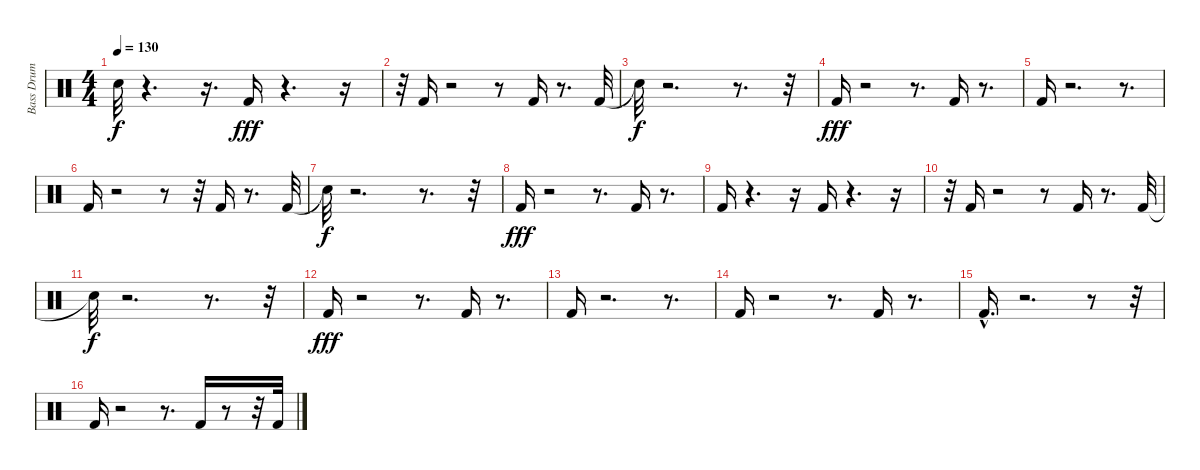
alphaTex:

\track ("Bass Drum" "Bass Drum") {instrument percussion}
\staff {score}
\articulation defaults
\ts (4 4)
\tempo 130
\clef neutral
\ks c "Snare (hit)"{t}.32{dy f}
r.4{d} r.16{d} "Kick (hit) 2".16{dy fff} r.4{d} r.16 |
r.32 "Kick (hit) 2".16 r.2 r.8 "Kick (hit) 2".16 r.8{d} "Kick (hit) 2".32 |
"Snare (hit)"{t}.32{dy f} r.2{d} r.8{d} r.32 |
"Kick (hit) 2".16{dy fff} r.2 r.8{d} "Kick (hit) 2".16 r.8{d} |
"Kick (hit) 2".16 r.2{d} r.8{d} |
"Kick (hit) 2".16 r.2 r.8 r.32 "Kick (hit) 2".16 r.8{d} "Kick (hit) 2".32 |
"Snare (hit)"{t}.32{dy f} r.2{d} r.8{d} r.32 |
"Kick (hit) 2".16{dy fff} r.2 r.8{d} "Kick (hit) 2".16 r.8{d} |
"Kick (hit) 2".16 r.4{d} r.16 "Kick (hit) 2".16 r.4{d} r.16 |
r.32 "Kick (hit) 2".16 r.2 r.8 "Kick (hit) 2".16 r.8{d} "Kick (hit) 2".32 |
"Snare (hit)"{t}.32{dy f} r.2{d} r.8{d} r.32 |
"Kick (hit) 2".16{dy fff} r.2 r.8{d} "Kick (hit) 2".16 r.8{d} |
"Kick (hit) 2".16 r.2{d} r.8{d} |
"Kick (hit) 2".16 r.2 r.8{d} "Kick (hit) 2".16 r.8{d} |
"Kick (hit) 2"{hac}.16{d} r.2{d} r.8 r.32 |
"Kick (hit) 2".16 r.2 r.8{d} "Kick (hit) 2".16 r.8 r.32 "Kick (hit) 2".32
